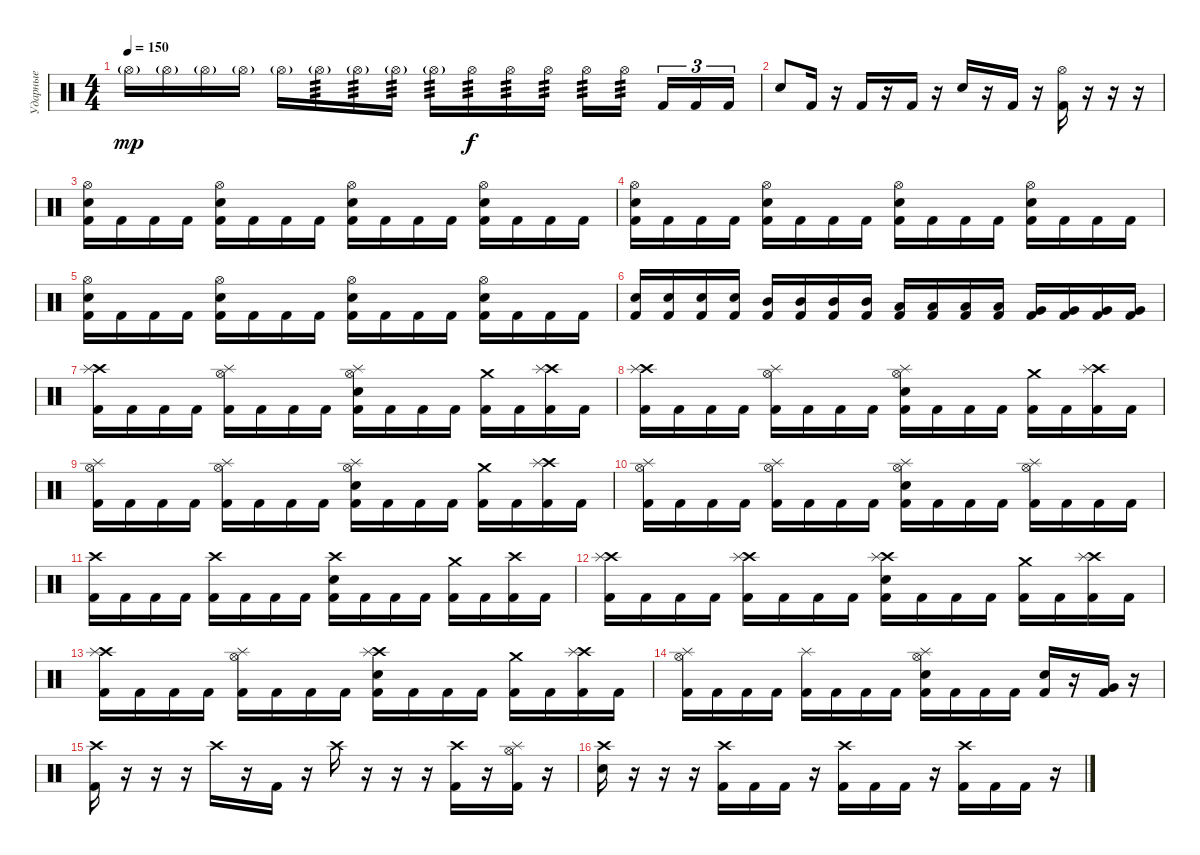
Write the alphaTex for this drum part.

\track ("Ударные" "Ударные") {instrument percussion}
\staff {score}
\articulation defaults
\ts (4 4)
\tempo 150
\clef neutral
\ks c "Hi-Hat (open)"{g}.16{dy mp} "Hi-Hat (open)"{g}.16 "Hi-Hat (open)"{g}.16 "Hi-Hat (open)"{g}.16 "Hi-Hat (open)"{g}.16 "Hi-Hat (open)"{g}.16{tp 3} "Hi-Hat (open)"{g}.16{tp 3} "Hi-Hat (open)"{g}.16{tp 3} "Hi-Hat (open)"{g}.16{tp 3} "Hi-Hat (open)".16{tp 3 dy f} "Hi-Hat (open)".16{tp 3} "Hi-Hat (open)".16{tp 3} "Hi-Hat (open)".16{tp 3} "Hi-Hat (open)".16{tp 3 beam splitsecondary} "Kick (hit) 2".16{tu (3 2)} "Kick (hit) 2".16{tu (3 2)} "Kick (hit) 2".16{tu (3 2)}
|
"Electric Snare (hit)".8 "Kick (hit) 2".16 r.16 "Kick (hit) 2".16 r.16 "Kick (hit) 2".16 r.16 "Electric Snare (hit)".16 r.16 "Kick (hit) 2".16 r.16 ("Hi-Hat (open)" "Kick (hit) 2").16 r.16 r.16 r.16 |
("Hi-Hat (open)" "Electric Snare (hit)" "Kick (hit) 2").16 "Kick (hit) 2".16 "Kick (hit) 2".16 "Kick (hit) 2".16 ("Hi-Hat (open)" "Electric Snare (hit)" "Kick (hit) 2").16 "Kick (hit) 2".16 "Kick (hit) 2".16 "Kick (hit) 2".16 ("Hi-Hat (open)" "Electric Snare (hit)" "Kick (hit) 2").16 "Kick (hit) 2".16 "Kick (hit) 2".16 "Kick (hit) 2".16 ("Hi-Hat (open)" "Electric Snare (hit)" "Kick (hit) 2").16 "Kick (hit) 2".16 "Kick (hit) 2".16 "Kick (hit) 2".16 |
("Hi-Hat (open)" "Electric Snare (hit)" "Kick (hit) 2").16 "Kick (hit) 2".16 "Kick (hit) 2".16 "Kick (hit) 2".16 ("Hi-Hat (open)" "Electric Snare (hit)" "Kick (hit) 2").16 "Kick (hit) 2".16 "Kick (hit) 2".16 "Kick (hit) 2".16 ("Hi-Hat (open)" "Electric Snare (hit)" "Kick (hit) 2").16 "Kick (hit) 2".16 "Kick (hit) 2".16 "Kick (hit) 2".16 ("Hi-Hat (open)" "Electric Snare (hit)" "Kick (hit) 2").16 "Kick (hit) 2".16 "Kick (hit) 2".16 "Kick (hit) 2".16 |
("Hi-Hat (open)" "Electric Snare (hit)" "Kick (hit) 2").16 "Kick (hit) 2".16 "Kick (hit) 2".16 "Kick (hit) 2".16 ("Hi-Hat (open)" "Electric Snare (hit)" "Kick (hit) 2").16 "Kick (hit) 2".16 "Kick (hit) 2".16 "Kick (hit) 2".16 ("Hi-Hat (open)" "Electric Snare (hit)" "Kick (hit) 2").16 "Kick (hit) 2".16 "Kick (hit) 2".16 "Kick (hit) 2".16 ("Hi-Hat (open)" "Electric Snare (hit)" "Kick (hit) 2").16 "Kick (hit) 2".16 "Kick (hit) 2".16 "Kick (hit) 2".16 |
("Electric Snare (hit)" "Kick (hit) 2").16 ("Electric Snare (hit)" "Kick (hit) 2").16 ("Electric Snare (hit)" "Kick (hit) 2").16 ("Electric Snare (hit)" "Kick (hit) 2").16 ("Mid Tom (hit)" "Kick (hit) 2").16 ("Mid Tom (hit)" "Kick (hit) 2").16 ("Mid Tom (hit)" "Kick (hit) 2").16 ("Mid Tom (hit)" "Kick (hit) 2").16 ("Low Tom (hit)" "Kick (hit) 2").16 ("Low Tom (hit)" "Kick (hit) 2").16 ("Low Tom (hit)" "Kick (hit) 2").16 ("Low Tom (hit)" "Kick (hit) 2").16 ("Very Low Tom (hit)" "Kick (hit) 2").16 ("Very Low Tom (hit)" "Kick (hit) 2").16 ("Very Low Tom (hit)" "Kick (hit) 2").16 ("Very Low Tom (hit)" "Kick (hit) 2").16 |
("Crash high (hit)" "Splash (hit)" "Kick (hit) 2").16 "Kick (hit) 2".16 "Kick (hit) 2".16 "Kick (hit) 2".16 ("Hi-Hat (open)" "Splash (hit)" "Kick (hit) 2").16 "Kick (hit) 2".16 "Kick (hit) 2".16 "Kick (hit) 2".16 ("Hi-Hat (open)" "Splash (hit)" "Electric Snare (hit)" "Kick (hit) 2").16 "Kick (hit) 2".16 "Kick (hit) 2".16 "Kick (hit) 2".16 ("Crash medium (hit)" "Kick (hit) 2").16 "Kick (hit) 2".16 ("Crash high (hit)" "Splash (hit)" "Kick (hit) 2").16 "Kick (hit) 2".16 |
("Crash high (hit)" "Splash (hit)" "Kick (hit) 2").16 "Kick (hit) 2".16 "Kick (hit) 2".16 "Kick (hit) 2".16 ("Hi-Hat (open)" "Splash (hit)" "Kick (hit) 2").16 "Kick (hit) 2".16 "Kick (hit) 2".16 "Kick (hit) 2".16 ("Hi-Hat (open)" "Splash (hit)" "Electric Snare (hit)" "Kick (hit) 2").16 "Kick (hit) 2".16 "Kick (hit) 2".16 "Kick (hit) 2".16 ("Crash medium (hit)" "Kick (hit) 2").16 "Kick (hit) 2".16 ("Crash high (hit)" "Splash (hit)" "Kick (hit) 2").16 "Kick (hit) 2".16 |
("Hi-Hat (open)" "Splash (hit)" "Kick (hit) 2").16 "Kick (hit) 2".16 "Kick (hit) 2".16 "Kick (hit) 2".16 ("Hi-Hat (open)" "Splash (hit)" "Kick (hit) 2").16 "Kick (hit) 2".16 "Kick (hit) 2".16 "Kick (hit) 2".16 ("Hi-Hat (open)" "Splash (hit)" "Electric Snare (hit)" "Kick (hit) 2").16 "Kick (hit) 2".16 "Kick (hit) 2".16 "Kick (hit) 2".16 ("Crash medium (hit)" "Kick (hit) 2").16 "Kick (hit) 2".16 ("Crash high (hit)" "Splash (hit)" "Kick (hit) 2").16 "Kick (hit) 2".16 |
("Hi-Hat (open)" "Splash (hit)" "Kick (hit) 2").16 "Kick (hit) 2".16 "Kick (hit) 2".16 "Kick (hit) 2".16 ("Hi-Hat (open)" "Splash (hit)" "Kick (hit) 2").16 "Kick (hit) 2".16 "Kick (hit) 2".16 "Kick (hit) 2".16 ("Hi-Hat (open)" "Splash (hit)" "Electric Snare (hit)" "Kick (hit) 2").16 "Kick (hit) 2".16 "Kick (hit) 2".16 "Kick (hit) 2".16 ("Hi-Hat (open)" "Splash (hit)" "Kick (hit) 2").16 "Kick (hit) 2".16 "Kick (hit) 2".16 "Kick (hit) 2".16 |
("Crash high (hit)" "Kick (hit) 2").16 "Kick (hit) 2".16 "Kick (hit) 2".16 "Kick (hit) 2".16 ("Crash high (hit)" "Kick (hit) 2").16 "Kick (hit) 2".16 "Kick (hit) 2".16 "Kick (hit) 2".16 ("Crash high (hit)" "Electric Snare (hit)" "Kick (hit) 2").16 "Kick (hit) 2".16 "Kick (hit) 2".16 "Kick (hit) 2".16 ("Crash medium (hit)" "Kick (hit) 2").16 "Kick (hit) 2".16 ("Crash high (hit)" "Kick (hit) 2").16 "Kick (hit) 2".16 |
("Crash high (hit)" "Splash (hit)" "Kick (hit) 2").16 "Kick (hit) 2".16 "Kick (hit) 2".16 "Kick (hit) 2".16 ("Crash high (hit)" "Splash (hit)" "Kick (hit) 2").16 "Kick (hit) 2".16 "Kick (hit) 2".16 "Kick (hit) 2".16 ("Crash high (hit)" "Splash (hit)" "Electric Snare (hit)" "Kick (hit) 2").16 "Kick (hit) 2".16 "Kick (hit) 2".16 "Kick (hit) 2".16 ("Crash medium (hit)" "Kick (hit) 2").16 "Kick (hit) 2".16 ("Crash high (hit)" "Splash (hit)" "Kick (hit) 2").16 "Kick (hit) 2".16 |
("Crash high (hit)" "Splash (hit)" "Kick (hit) 2").16 "Kick (hit) 2".16 "Kick (hit) 2".16 "Kick (hit) 2".16 ("Hi-Hat (open)" "Splash (hit)" "Kick (hit) 2").16 "Kick (hit) 2".16 "Kick (hit) 2".16 "Kick (hit) 2".16 ("Crash high (hit)" "Splash (hit)" "Electric Snare (hit)" "Kick (hit) 2").16 "Kick (hit) 2".16 "Kick (hit) 2".16 "Kick (hit) 2".16 ("Crash medium (hit)" "Kick (hit) 2").16 "Kick (hit) 2".16 ("Crash high (hit)" "Splash (hit)" "Kick (hit) 2").16 "Kick (hit) 2".16 |
("Hi-Hat (open)" "Splash (hit)" "Kick (hit) 2").16 "Kick (hit) 2".16 "Kick (hit) 2".16 "Kick (hit) 2".16 ("Splash (hit)" "Kick (hit) 2").16 "Kick (hit) 2".16 "Kick (hit) 2".16 "Kick (hit) 2".16 ("Splash (hit)" "Hi-Hat (open)" "Electric Snare (hit)" "Kick (hit) 2").16 "Kick (hit) 2".16 "Kick (hit) 2".16 "Kick (hit) 2".16 ("Electric Snare (hit)" "Kick (hit) 2").16 r.16 ("Very Low Tom (hit)" "Kick (hit) 2").16 r.16 |
("Crash high (hit)" "Kick (hit) 2").16 r.16 r.16 r.16 "Crash high (hit)".16 r.16 "Kick (hit) 2".16 r.16 "Crash high (hit)".16 r.16 r.16 r.16 ("Crash high (hit)" "Kick (hit) 2").16 r.16 ("Hi-Hat (open)" "Splash (hit)" "Kick (hit) 2").16 r.16 |
("Crash high (hit)" "Electric Snare (hit)").16 r.16 r.16 r.16 ("Crash high (hit)" "Kick (hit) 2").16 "Kick (hit) 2".16 "Kick (hit) 2".16 r.16 ("Crash high (hit)" "Kick (hit) 2").16 "Kick (hit) 2".16 "Kick (hit) 2".16 r.16 ("Crash high (hit)" "Kick (hit) 2").16 "Kick (hit) 2".16 "Kick (hit) 2".16 r.16
